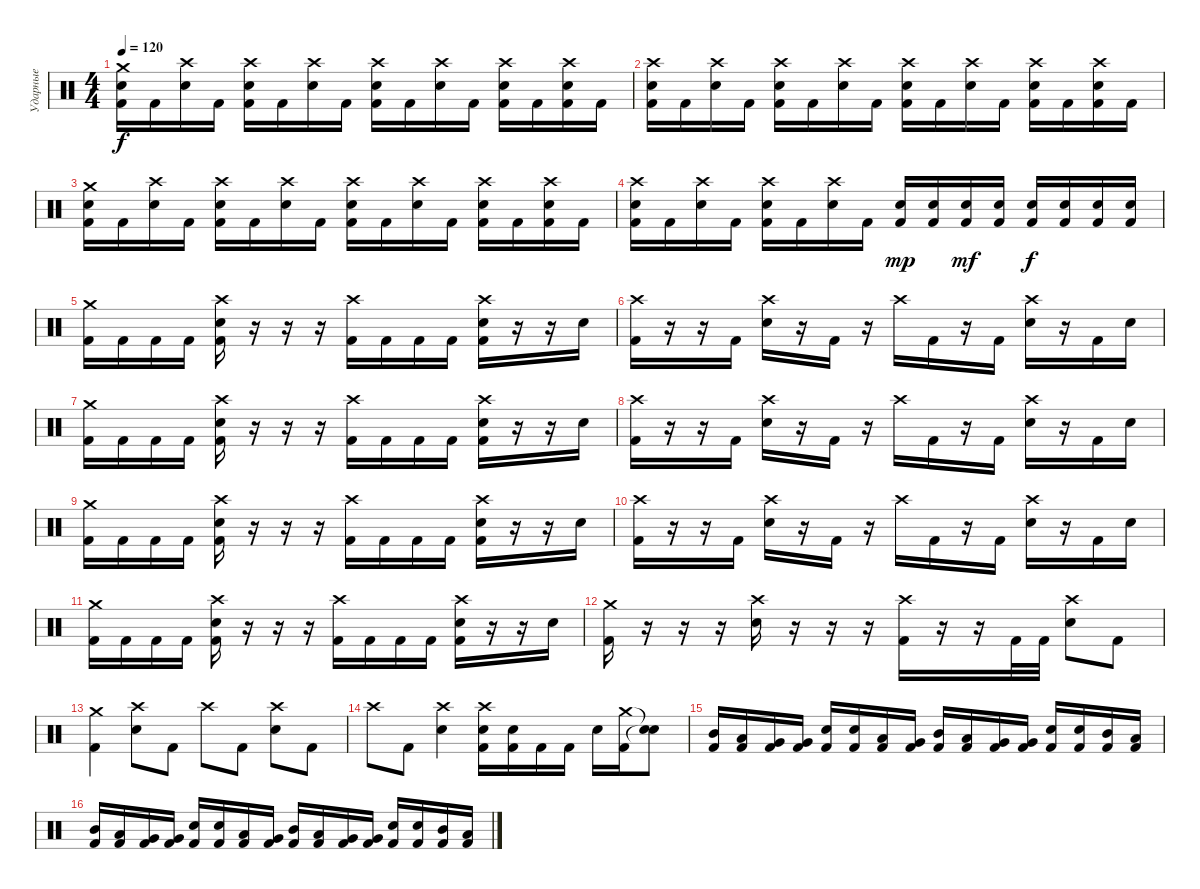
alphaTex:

\track ("Ударные" "Ударные") {instrument percussion}
\staff {score}
\articulation defaults
\ts (4 4)
\tempo 120
\clef neutral
\ks c
("Kick (hit) 2" "Electric Snare (hit)" "Crash medium (hit)").16{dy f} "Kick (hit) 2".16 ("Electric Snare (hit)" "Crash high (hit)").16 "Kick (hit) 2".16 ("Kick (hit) 2" "Electric Snare (hit)" "Crash high (hit)").16 "Kick (hit) 2".16 ("Electric Snare (hit)" "Crash high (hit)").16 "Kick (hit) 2".16 ("Kick (hit) 2" "Electric Snare (hit)" "Crash high (hit)").16 "Kick (hit) 2".16 ("Electric Snare (hit)" "Crash high (hit)").16 "Kick (hit) 2".16 ("Kick (hit) 2" "Electric Snare (hit)" "Crash high (hit)").16 "Kick (hit) 2".16 ("Kick (hit) 2" "Electric Snare (hit)" "Crash high (hit)").16 "Kick (hit) 2".16 |
("Kick (hit) 2" "Electric Snare (hit)" "Crash high (hit)").16 "Kick (hit) 2".16 ("Electric Snare (hit)" "Crash high (hit)").16 "Kick (hit) 2".16 ("Kick (hit) 2" "Electric Snare (hit)" "Crash high (hit)").16 "Kick (hit) 2".16 ("Electric Snare (hit)" "Crash high (hit)").16 "Kick (hit) 2".16 ("Kick (hit) 2" "Electric Snare (hit)" "Crash high (hit)").16 "Kick (hit) 2".16 ("Electric Snare (hit)" "Crash high (hit)").16 "Kick (hit) 2".16 ("Kick (hit) 2" "Electric Snare (hit)" "Crash high (hit)").16 "Kick (hit) 2".16 ("Kick (hit) 2" "Electric Snare (hit)" "Crash high (hit)").16 "Kick (hit) 2".16 |
("Kick (hit) 2" "Electric Snare (hit)" "Crash medium (hit)").16 "Kick (hit) 2".16 ("Electric Snare (hit)" "Crash high (hit)").16 "Kick (hit) 2".16 ("Kick (hit) 2" "Electric Snare (hit)" "Crash high (hit)").16 "Kick (hit) 2".16 ("Electric Snare (hit)" "Crash high (hit)").16 "Kick (hit) 2".16 ("Kick (hit) 2" "Electric Snare (hit)" "Crash high (hit)").16 "Kick (hit) 2".16 ("Electric Snare (hit)" "Crash high (hit)").16 "Kick (hit) 2".16 ("Kick (hit) 2" "Electric Snare (hit)" "Crash high (hit)").16 "Kick (hit) 2".16 ("Kick (hit) 2" "Electric Snare (hit)" "Crash high (hit)").16 "Kick (hit) 2".16 |
("Kick (hit) 2" "Electric Snare (hit)" "Crash high (hit)").16 "Kick (hit) 2".16 ("Electric Snare (hit)" "Crash high (hit)").16 "Kick (hit) 2".16 ("Kick (hit) 2" "Electric Snare (hit)" "Crash high (hit)").16 "Kick (hit) 2".16 ("Electric Snare (hit)" "Crash high (hit)").16 "Kick (hit) 2".16 ("Electric Snare (hit)" "Kick (hit) 2").16{dy mp} ("Electric Snare (hit)" "Kick (hit) 2").16 ("Electric Snare (hit)" "Kick (hit) 2").16{dy mf} ("Electric Snare (hit)" "Kick (hit) 2").16 ("Electric Snare (hit)" "Kick (hit) 2").16{dy f} ("Electric Snare (hit)" "Kick (hit) 2").16 ("Electric Snare (hit)" "Kick (hit) 2").16 ("Electric Snare (hit)" "Kick (hit) 2").16 |
("Kick (hit) 2" "Crash medium (hit)").16 "Kick (hit) 2".16 "Kick (hit) 2".16 "Kick (hit) 2".16 ("Kick (hit) 2" "Electric Snare (hit)" "Crash high (hit)").16 r.16 r.16 r.16 ("Kick (hit) 2" "Crash high (hit)").16 "Kick (hit) 2".16 "Kick (hit) 2".16 "Kick (hit) 2".16 ("Kick (hit) 2" "Electric Snare (hit)" "Crash high (hit)").16 r.16 r.16 "Electric Snare (hit)".16 |
("Kick (hit) 2" "Crash high (hit)").16 r.16 r.16 "Kick (hit) 2".16 ("Electric Snare (hit)" "Crash high (hit)").16 r.16 "Kick (hit) 2".16 r.16 "Crash high (hit)".16 "Kick (hit) 2".16 r.16 "Kick (hit) 2".16 ("Electric Snare (hit)" "Crash high (hit)").16 r.16 "Kick (hit) 2".16 "Electric Snare (hit)".16 |
("Kick (hit) 2" "Crash medium (hit)").16 "Kick (hit) 2".16 "Kick (hit) 2".16 "Kick (hit) 2".16 ("Kick (hit) 2" "Electric Snare (hit)" "Crash high (hit)").16 r.16 r.16 r.16 ("Kick (hit) 2" "Crash high (hit)").16 "Kick (hit) 2".16 "Kick (hit) 2".16 "Kick (hit) 2".16 ("Kick (hit) 2" "Electric Snare (hit)" "Crash high (hit)").16 r.16 r.16 "Electric Snare (hit)".16 |
("Kick (hit) 2" "Crash high (hit)").16 r.16 r.16 "Kick (hit) 2".16 ("Electric Snare (hit)" "Crash high (hit)").16 r.16 "Kick (hit) 2".16 r.16 "Crash high (hit)".16 "Kick (hit) 2".16 r.16 "Kick (hit) 2".16 ("Electric Snare (hit)" "Crash high (hit)").16 r.16 "Kick (hit) 2".16 "Electric Snare (hit)".16 |
("Kick (hit) 2" "Crash medium (hit)").16 "Kick (hit) 2".16 "Kick (hit) 2".16 "Kick (hit) 2".16 ("Kick (hit) 2" "Electric Snare (hit)" "Crash high (hit)").16 r.16 r.16 r.16 ("Kick (hit) 2" "Crash high (hit)").16 "Kick (hit) 2".16 "Kick (hit) 2".16 "Kick (hit) 2".16 ("Kick (hit) 2" "Electric Snare (hit)" "Crash high (hit)").16 r.16 r.16 "Electric Snare (hit)".16 |
("Kick (hit) 2" "Crash high (hit)").16 r.16 r.16 "Kick (hit) 2".16 ("Electric Snare (hit)" "Crash high (hit)").16 r.16 "Kick (hit) 2".16 r.16 "Crash high (hit)".16 "Kick (hit) 2".16 r.16 "Kick (hit) 2".16 ("Electric Snare (hit)" "Crash high (hit)").16 r.16 "Kick (hit) 2".16 "Electric Snare (hit)".16 |
("Kick (hit) 2" "Crash medium (hit)").16 "Kick (hit) 2".16 "Kick (hit) 2".16 "Kick (hit) 2".16 ("Kick (hit) 2" "Electric Snare (hit)" "Crash high (hit)").16 r.16 r.16 r.16 ("Kick (hit) 2" "Crash high (hit)").16 "Kick (hit) 2".16 "Kick (hit) 2".16 "Kick (hit) 2".16 ("Kick (hit) 2" "Electric Snare (hit)" "Crash high (hit)").16 r.16 r.16 "Electric Snare (hit)".16 |
("Kick (hit) 2" "Crash medium (hit)").16 r.16 r.16 r.16 ("Electric Snare (hit)" "Crash high (hit)").16 r.16 r.16 r.16 ("Kick (hit) 2" "Crash high (hit)").16 r.16 r.16 "Kick (hit) 2".32 "Kick (hit) 2".32 ("Electric Snare (hit)" "Crash high (hit)").8 "Kick (hit) 2".8 |
("Kick (hit) 2" "Crash medium (hit)").4 ("Electric Snare (hit)" "Crash high (hit)").8 "Kick (hit) 2".8 "Crash high (hit)".8 "Kick (hit) 2".8 ("Electric Snare (hit)" "Crash high (hit)").8 "Kick (hit) 2".8 |
"Crash high (hit)".8 "Kick (hit) 2".8 ("Electric Snare (hit)" "Crash high (hit)").4 ("Electric Snare (hit)" "Kick (hit) 2" "Crash high (hit)").16 ("Electric Snare (hit)" "Kick (hit) 2").16 "Kick (hit) 2".16 "Kick (hit) 2".16 "Electric Snare (hit)".16 ("Crash medium (hit)" "Kick (hit) 2").16 ("Snare (hit)"{t} "Snare (hit)"{t}).8 |
("Kick (hit) 2" "Mid Tom (hit)").16 ("Kick (hit) 2" "Low Tom (hit)").16 ("Kick (hit) 2" "Very Low Tom (hit)").16 ("Kick (hit) 2" "Very Low Tom (hit)").16 ("Kick (hit) 2" "Electric Snare (hit)").16 ("Kick (hit) 2" "Electric Snare (hit)").16 ("Kick (hit) 2" "Low Tom (hit)").16 ("Kick (hit) 2" "Very Low Tom (hit)").16 ("Kick (hit) 2" "Mid Tom (hit)").16 ("Kick (hit) 2" "Low Tom (hit)").16 ("Kick (hit) 2" "Very Low Tom (hit)").16 ("Kick (hit) 2" "Very Low Tom (hit)").16 ("Kick (hit) 2" "Electric Snare (hit)").16 ("Kick (hit) 2" "Electric Snare (hit)").16 ("Kick (hit) 2" "Mid Tom (hit)").16 ("Kick (hit) 2" "Low Tom (hit)").16 |
("Kick (hit) 2" "Mid Tom (hit)").16 ("Kick (hit) 2" "Low Tom (hit)").16 ("Kick (hit) 2" "Very Low Tom (hit)").16 ("Kick (hit) 2" "Very Low Tom (hit)").16 ("Kick (hit) 2" "Electric Snare (hit)").16 ("Kick (hit) 2" "Electric Snare (hit)").16 ("Kick (hit) 2" "Low Tom (hit)").16 ("Kick (hit) 2" "Very Low Tom (hit)").16 ("Kick (hit) 2" "Mid Tom (hit)").16 ("Kick (hit) 2" "Low Tom (hit)").16 ("Kick (hit) 2" "Very Low Tom (hit)").16 ("Kick (hit) 2" "Very Low Tom (hit)").16 ("Kick (hit) 2" "Electric Snare (hit)").16 ("Kick (hit) 2" "Electric Snare (hit)").16 ("Kick (hit) 2" "Mid Tom (hit)").16 ("Kick (hit) 2" "Low Tom (hit)").16
